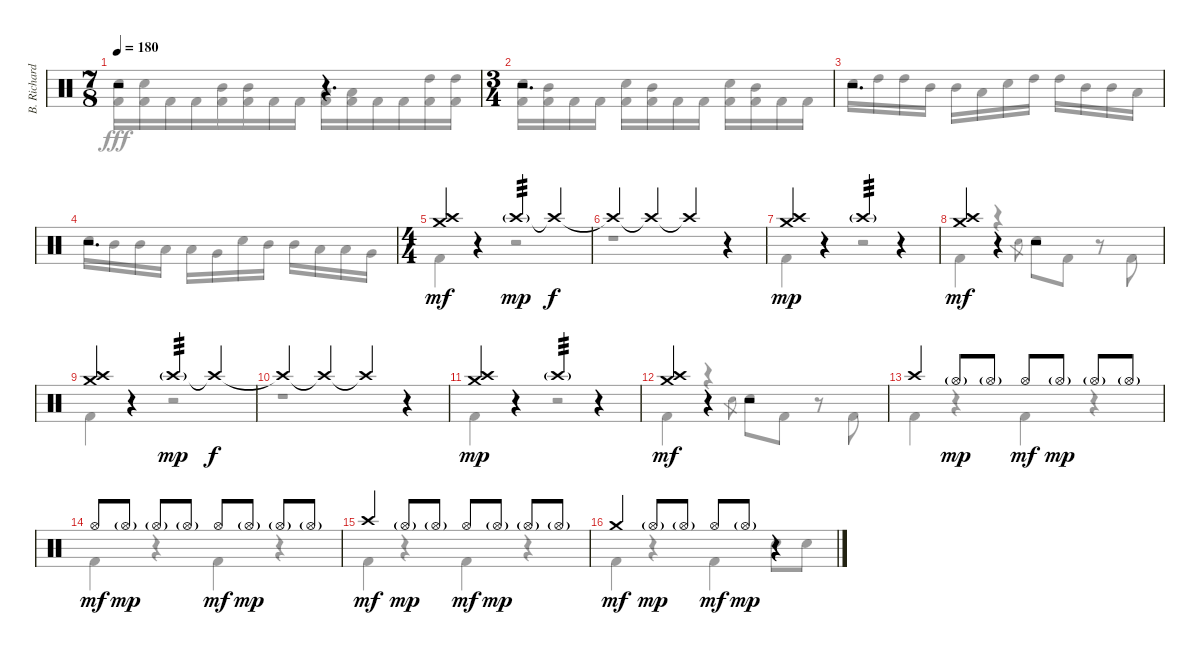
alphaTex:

\track ("B. Richardson Drums" "B. Richard") {instrument percussion}
\staff {score}
\articulation defaults
\voice
\ts (7 8)
\tempo 180
\clef neutral
\ks c
r.2{dy mf} r.4{d} |
\ts (3 4)
r.2{d} |
r.2{d} |
r.2{d} |
\ts (4 4)
("Crash high (hit)" "Crash medium (hit)").4 r.4 "Crash high (hit)"{g}.4{tp 3 dy mp} "Crash high (hit)"{t}.4{dy f} |
"Crash high (hit)"{t}.4 "Crash high (hit)"{t}.4 "Crash high (hit)"{t}.4 r.4 |
("Crash high (hit)" "Crash medium (hit)").4{dy mp} r.4 "Crash high (hit)"{g}.4{tp 3} r.4 |
("Crash high (hit)" "Crash medium (hit)").4{dy mf} r.4 r.2 |
("Crash high (hit)" "Crash medium (hit)").4 r.4 "Crash high (hit)"{g}.4{tp 3 dy mp} "Crash high (hit)"{t}.4{dy f} |
"Crash high (hit)"{t}.4 "Crash high (hit)"{t}.4 "Crash high (hit)"{t}.4 r.4 |
("Crash high (hit)" "Crash medium (hit)").4{dy mp} r.4 "Crash high (hit)"{g}.4{tp 3} r.4 |
("Crash high (hit)" "Crash medium (hit)").4{dy mf} r.4 r.2 |
"Crash high (hit)".4 "Hi-Hat (open)"{g}.8{dy mp} "Hi-Hat (open)"{g}.8 "Hi-Hat (open)".8{dy mf} "Hi-Hat (open)"{g}.8{dy mp} "Hi-Hat (open)"{g}.8 "Hi-Hat (open)"{g}.8 |
"Hi-Hat (open)".8{dy mf} "Hi-Hat (open)"{g}.8{dy mp} "Hi-Hat (open)"{g}.8 "Hi-Hat (open)"{g}.8 "Hi-Hat (open)".8{dy mf} "Hi-Hat (open)"{g}.8{dy mp} "Hi-Hat (open)"{g}.8 "Hi-Hat (open)"{g}.8 |
"Crash high (hit)".4{dy mf} "Hi-Hat (open)"{g}.8{dy mp} "Hi-Hat (open)"{g}.8 "Hi-Hat (open)".8{dy mf} "Hi-Hat (open)"{g}.8{dy mp} "Hi-Hat (open)"{g}.8 "Hi-Hat (open)"{g}.8 |
"Crash medium (hit)".4{dy mf} "Hi-Hat (open)"{g}.8{dy mp} "Hi-Hat (open)"{g}.8 "Hi-Hat (open)".8{dy mf} "Hi-Hat (open)"{g}.8{dy mp} r.4
\voice
\clef neutral
\ottava regular
\simile none
\ks c
("Electric Snare (hit)" "Kick (hit) 2").16{dy fff} ("Electric Snare (hit)" "Kick (hit) 2").16 "Kick (hit) 2".16 "Kick (hit) 2".16 ("Mid Tom (hit)" "Kick (hit) 2").16 ("Mid Tom (hit)" "Kick (hit) 2").16 "Kick (hit) 2".16 "Kick (hit) 2".16 ("Low Tom (hit)" "Kick (hit) 2").16 ("Low Tom (hit)" "Kick (hit) 2").16 "Kick (hit) 2".16 "Kick (hit) 2".16 ("High Tom (hit)" "Kick (hit) 2").16 ("High Tom (hit)" "Kick (hit) 2").16 |
("Electric Snare (hit)" "Kick (hit) 2").16 ("Mid Tom (hit)" "Kick (hit) 2").16 "Kick (hit) 2".16 "Kick (hit) 2".16 ("Electric Snare (hit)" "Kick (hit) 2").16 ("Mid Tom (hit)" "Kick (hit) 2").16 "Kick (hit) 2".16 "Kick (hit) 2".16 ("Electric Snare (hit)" "Kick (hit) 2").16 ("Mid Tom (hit)" "Kick (hit) 2").16 "Kick (hit) 2".16 "Kick (hit) 2".16 |
"Electric Snare (hit)".16 "High Tom (hit)".16 "High Tom (hit)".16 "Mid Tom (hit)".16 "Mid Tom (hit)".16 "Low Tom (hit)".16 "Electric Snare (hit)".16 "High Tom (hit)".16 "High Tom (hit)".16 "Mid Tom (hit)".16 "Mid Tom (hit)".16 "Low Tom (hit)".16 |
"Electric Snare (hit)".16 "Mid Tom (hit)".16 "Mid Tom (hit)".16 "Low Tom (hit)".16 "Low Tom (hit)".16 "Very Low Tom (hit)".16 "Electric Snare (hit)".16 "Mid Tom (hit)".16 "Mid Tom (hit)".16 "Low Tom (hit)".16 "Low Tom (hit)".16 "Very Low Tom (hit)".16 |
"Kick (hit) 2".4 r.4 r.2 |
r.1 |
"Kick (hit) 2".4 r.4 r.2 |
"Kick (hit) 2".4 r.4 "Electric Snare (hit)".8{gr} "Electric Snare (hit)".8 "Kick (hit) 2".8 r.8 "Kick (hit) 2".8 |
"Kick (hit) 2".4 r.4 r.2 |
r.1 |
"Kick (hit) 2".4 r.4 r.2 |
"Kick (hit) 2".4 r.4 "Electric Snare (hit)".8{gr} "Electric Snare (hit)".8 "Kick (hit) 2".8 r.8 "Kick (hit) 2".8 |
"Kick (hit) 2".4 r.4 "Kick (hit) 2".4 r.4 |
"Kick (hit) 2".4 r.4 "Kick (hit) 2".4 r.4 |
"Kick (hit) 2".4 r.4 "Kick (hit) 2".4 r.4 |
"Kick (hit) 2".4 r.4 "Kick (hit) 2".4 "Electric Snare (hit)".8 "Electric Snare (hit)".8
